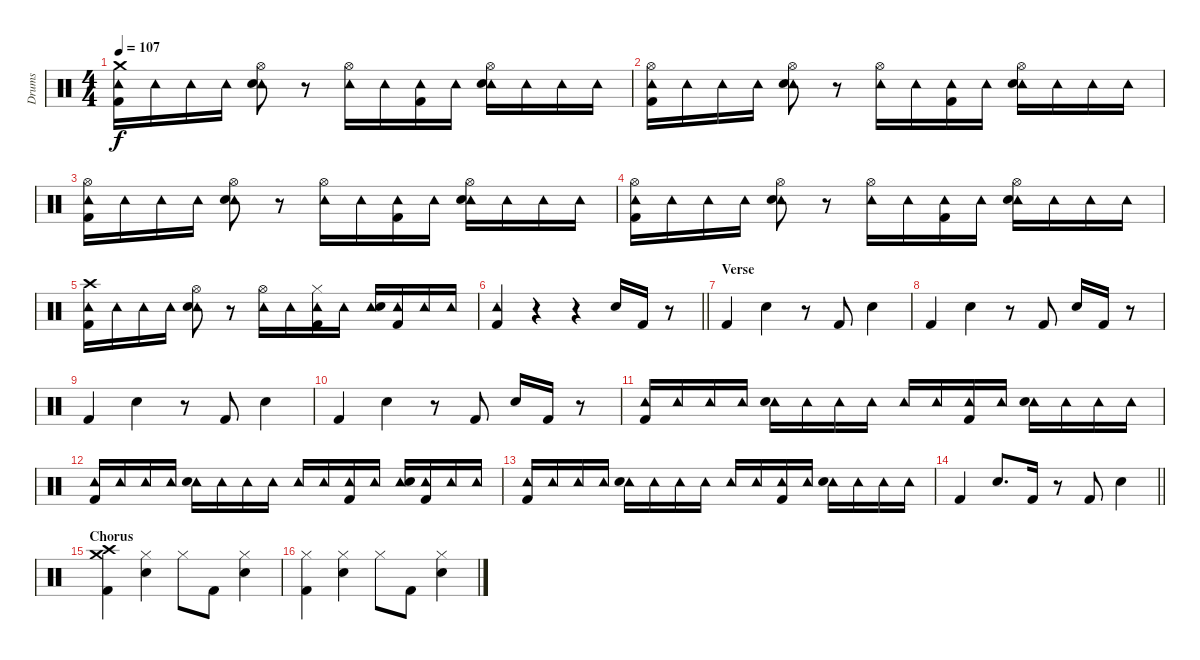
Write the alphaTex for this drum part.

\track ("Drums" "Drums") {instrument percussion}
\staff {score}
\articulation defaults
\ts (4 4)
\tempo 107
\clef neutral
\ks c
("Crash medium (hit)" "Tambourine (hit)" "Kick (hit) 2").16{dy f} "Tambourine (hit)".16 "Tambourine (hit)".16 "Tambourine (hit)".16 ("Hi-Hat (open)" "Tambourine (hit)" "Electric Snare (hit)").8 r.8 ("Hi-Hat (open)" "Tambourine (hit)").16 "Tambourine (hit)".16 ("Tambourine (hit)" "Kick (hit) 2").16 "Tambourine (hit)".16 ("Hi-Hat (open)" "Tambourine (hit)" "Electric Snare (hit)").16 "Tambourine (hit)".16 "Tambourine (hit)".16 "Tambourine (hit)".16 |
("Hi-Hat (open)" "Tambourine (hit)" "Kick (hit) 2").16 "Tambourine (hit)".16 "Tambourine (hit)".16 "Tambourine (hit)".16 ("Hi-Hat (open)" "Tambourine (hit)" "Electric Snare (hit)").8 r.8 ("Hi-Hat (open)" "Tambourine (hit)").16 "Tambourine (hit)".16 ("Tambourine (hit)" "Kick (hit) 2").16 "Tambourine (hit)".16 ("Hi-Hat (open)" "Tambourine (hit)" "Electric Snare (hit)").16 "Tambourine (hit)".16 "Tambourine (hit)".16 "Tambourine (hit)".16 |
("Hi-Hat (open)" "Tambourine (hit)" "Kick (hit) 2").16 "Tambourine (hit)".16 "Tambourine (hit)".16 "Tambourine (hit)".16 ("Hi-Hat (open)" "Tambourine (hit)" "Electric Snare (hit)").8 r.8 ("Hi-Hat (open)" "Tambourine (hit)").16 "Tambourine (hit)".16 ("Tambourine (hit)" "Kick (hit) 2").16 "Tambourine (hit)".16 ("Hi-Hat (open)" "Tambourine (hit)" "Electric Snare (hit)").16 "Tambourine (hit)".16 "Tambourine (hit)".16 "Tambourine (hit)".16 |
("Hi-Hat (open)" "Tambourine (hit)" "Kick (hit) 2").16 "Tambourine (hit)".16 "Tambourine (hit)".16 "Tambourine (hit)".16 ("Hi-Hat (open)" "Tambourine (hit)" "Electric Snare (hit)").8 r.8 ("Hi-Hat (open)" "Tambourine (hit)").16 "Tambourine (hit)".16 ("Tambourine (hit)" "Kick (hit) 2").16 "Tambourine (hit)".16 ("Hi-Hat (open)" "Tambourine (hit)" "Electric Snare (hit)").16 "Tambourine (hit)".16 "Tambourine (hit)".16 "Tambourine (hit)".16 |
("Crash high (hit)" "Tambourine (hit)" "Kick (hit) 2").16 "Tambourine (hit)".16 "Tambourine (hit)".16 "Tambourine (hit)".16 ("Hi-Hat (open)" "Tambourine (hit)" "Electric Snare (hit)").8 r.8 ("Hi-Hat (open)" "Tambourine (hit)").16 "Tambourine (hit)".16 ("Hi-Hat (closed)" "Tambourine (hit)" "Kick (hit) 2").16 "Tambourine (hit)".16 ("Tambourine (hit)" "Electric Snare (hit)").16 ("Tambourine (hit)" "Kick (hit) 2").16 "Tambourine (hit)".16 "Tambourine (hit)".16 |
\barLineRight lightlight
("Tambourine (hit)" "Kick (hit) 2").4 r.4 r.4 "Electric Snare (hit)".16 "Kick (hit) 2".16 r.8 |
\section ("" "Verse")
"Kick (hit) 2".4 "Electric Snare (hit)".4 r.8 "Kick (hit) 2".8 "Electric Snare (hit)".4 |
"Kick (hit) 2".4 "Electric Snare (hit)".4 r.8 "Kick (hit) 2".8 "Electric Snare (hit)".16 "Kick (hit) 2".16 r.8 |
"Kick (hit) 2".4 "Electric Snare (hit)".4 r.8 "Kick (hit) 2".8 "Electric Snare (hit)".4 |
"Kick (hit) 2".4 "Electric Snare (hit)".4 r.8 "Kick (hit) 2".8 "Electric Snare (hit)".16 "Kick (hit) 2".16 r.8 |
("Tambourine (hit)" "Kick (hit) 2").16 "Tambourine (hit)".16 "Tambourine (hit)".16 "Tambourine (hit)".16 ("Tambourine (hit)" "Electric Snare (hit)").16 "Tambourine (hit)".16 "Tambourine (hit)".16 "Tambourine (hit)".16 "Tambourine (hit)".16 "Tambourine (hit)".16 ("Tambourine (hit)" "Kick (hit) 2").16 "Tambourine (hit)".16 ("Tambourine (hit)" "Electric Snare (hit)").16 "Tambourine (hit)".16 "Tambourine (hit)".16 "Tambourine (hit)".16 |
("Tambourine (hit)" "Kick (hit) 2").16 "Tambourine (hit)".16 "Tambourine (hit)".16 "Tambourine (hit)".16 ("Tambourine (hit)" "Electric Snare (hit)").16 "Tambourine (hit)".16 "Tambourine (hit)".16 "Tambourine (hit)".16 "Tambourine (hit)".16 "Tambourine (hit)".16 ("Tambourine (hit)" "Kick (hit) 2").16 "Tambourine (hit)".16 ("Tambourine (hit)" "Electric Snare (hit)").16 ("Tambourine (hit)" "Kick (hit) 2").16 "Tambourine (hit)".16 "Tambourine (hit)".16 |
("Tambourine (hit)" "Kick (hit) 2").16 "Tambourine (hit)".16 "Tambourine (hit)".16 "Tambourine (hit)".16 ("Tambourine (hit)" "Electric Snare (hit)").16 "Tambourine (hit)".16 "Tambourine (hit)".16 "Tambourine (hit)".16 "Tambourine (hit)".16 "Tambourine (hit)".16 ("Tambourine (hit)" "Kick (hit) 2").16 "Tambourine (hit)".16 ("Tambourine (hit)" "Electric Snare (hit)").16 "Tambourine (hit)".16 "Tambourine (hit)".16 "Tambourine (hit)".16 |
\barLineRight lightlight "Kick (hit) 2".4 "Electric Snare (hit)".8{d} "Kick (hit) 2".16
r.8 "Kick (hit) 2".8 "Electric Snare (hit)".4 |
\section ("" "Chorus")
("Crash high (hit)" "Crash medium (hit)" "Kick (hit) 2").4 ("Hi-Hat (closed)" "Electric Snare (hit)").4 "Hi-Hat (closed)".8 "Kick (hit) 2".8 ("Hi-Hat (closed)" "Electric Snare (hit)").4 |
("Hi-Hat (closed)" "Kick (hit) 2").4 ("Hi-Hat (closed)" "Electric Snare (hit)").4 "Hi-Hat (closed)".8 "Kick (hit) 2".8 ("Hi-Hat (closed)" "Electric Snare (hit)").4
